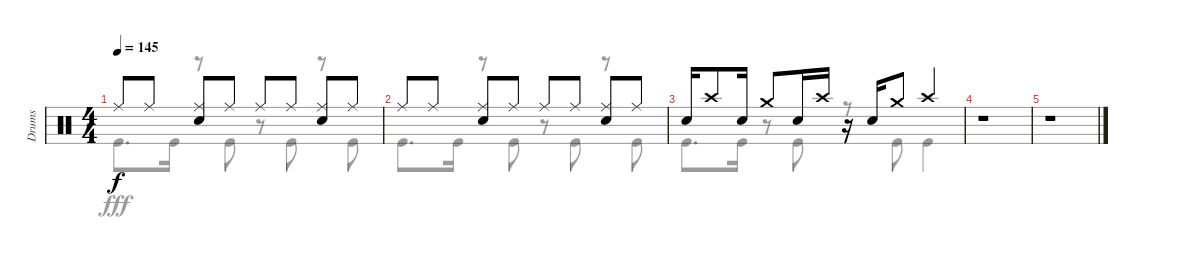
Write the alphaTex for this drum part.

\track ("Drums" "Drums") {instrument percussion}
\staff {score}
\articulation defaults
\voice
\ts (4 4)
\tempo 145
\clef neutral
\ks c "Ride (middle)".8{dy f} "Ride (middle)".8
("Ride (middle)" "Snare (hit) 2").8 "Ride (middle)".8 "Ride (middle)".8 "Ride (middle)".8 ("Ride (middle)" "Snare (hit) 2").8 "Ride (middle)".8 |
"Ride (middle)".8 "Ride (middle)".8 ("Ride (middle)" "Snare (hit) 2").8 "Ride (middle)".8 "Ride (middle)".8 "Ride (middle)".8 ("Ride (middle)" "Snare (hit) 2").8 "Ride (middle)".8 |
"Snare (hit) 2".16 "Crash high (hit)".8 "Snare (hit) 2".16 "Crash medium (hit)".8 "Snare (hit) 2".16 "Crash high (hit)".16 r.16 "Snare (hit) 2".16 "Crash medium (hit)".8 "Crash high (hit)".4 |
r.1 |
r.1
\voice
\clef neutral
\ottava regular
\simile none
\ks c "Kick (hit)".8{d dy fff} "Kick (hit)".16
r.8 "Kick (hit)".8 r.8 "Kick (hit)".8 r.8 "Kick (hit)".8 |
"Kick (hit)".8{d} "Kick (hit)".16 r.8 "Kick (hit)".8 r.8 "Kick (hit)".8 r.8 "Kick (hit)".8 |
"Kick (hit)".8{d} "Kick (hit)".16 r.8 "Kick (hit)".8 r.8 "Kick (hit)".8 "Kick (hit)".4 |
r.1 |
r.1
